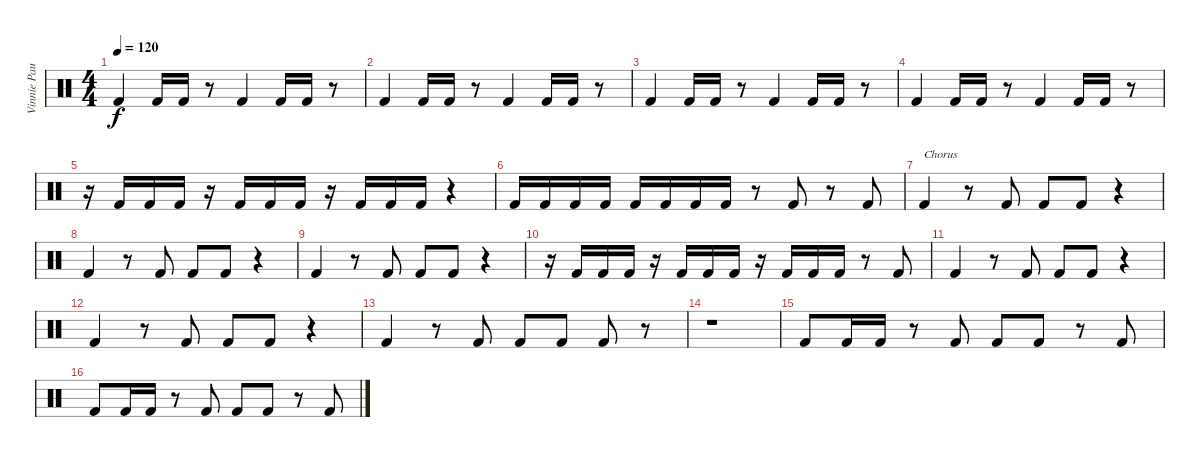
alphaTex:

\track ("Vinnie Paul bass drum" "Vinnie Pau") {instrument percussion}
\staff {score}
\articulation defaults
\ts (4 4)
\tempo 120
\clef neutral
\ks c "Kick (hit) 2".4{dy f} "Kick (hit) 2".16 "Kick (hit) 2".16
r.8 "Kick (hit) 2".4 "Kick (hit) 2".16 "Kick (hit) 2".16 r.8 |
"Kick (hit) 2".4 "Kick (hit) 2".16 "Kick (hit) 2".16 r.8 "Kick (hit) 2".4 "Kick (hit) 2".16 "Kick (hit) 2".16 r.8 |
"Kick (hit) 2".4 "Kick (hit) 2".16 "Kick (hit) 2".16 r.8 "Kick (hit) 2".4 "Kick (hit) 2".16 "Kick (hit) 2".16 r.8 |
"Kick (hit) 2".4 "Kick (hit) 2".16 "Kick (hit) 2".16 r.8 "Kick (hit) 2".4 "Kick (hit) 2".16 "Kick (hit) 2".16 r.8 |
r.16 "Kick (hit) 2".16 "Kick (hit) 2".16 "Kick (hit) 2".16 r.16 "Kick (hit) 2".16 "Kick (hit) 2".16 "Kick (hit) 2".16 r.16 "Kick (hit) 2".16 "Kick (hit) 2".16 "Kick (hit) 2".16 r.4 |
"Kick (hit) 2".16 "Kick (hit) 2".16 "Kick (hit) 2".16 "Kick (hit) 2".16 "Kick (hit) 2".16 "Kick (hit) 2".16 "Kick (hit) 2".16 "Kick (hit) 2".16 r.8 "Kick (hit) 2".8 r.8 "Kick (hit) 2".8 |
"Kick (hit) 2".4{txt "Chorus"} r.8 "Kick (hit) 2".8 "Kick (hit) 2".8 "Kick (hit) 2".8 r.4 |
"Kick (hit) 2".4 r.8 "Kick (hit) 2".8 "Kick (hit) 2".8 "Kick (hit) 2".8 r.4 |
"Kick (hit) 2".4 r.8 "Kick (hit) 2".8 "Kick (hit) 2".8 "Kick (hit) 2".8 r.4 |
r.16 "Kick (hit) 2".16 "Kick (hit) 2".16 "Kick (hit) 2".16 r.16 "Kick (hit) 2".16 "Kick (hit) 2".16 "Kick (hit) 2".16 r.16 "Kick (hit) 2".16 "Kick (hit) 2".16 "Kick (hit) 2".16 r.8 "Kick (hit) 2".8 |
"Kick (hit) 2".4 r.8 "Kick (hit) 2".8 "Kick (hit) 2".8 "Kick (hit) 2".8 r.4 |
"Kick (hit) 2".4 r.8 "Kick (hit) 2".8 "Kick (hit) 2".8 "Kick (hit) 2".8 r.4 |
"Kick (hit) 2".4 r.8 "Kick (hit) 2".8 "Kick (hit) 2".8 "Kick (hit) 2".8 "Kick (hit) 2".8 r.8 |
r.1 |
"Kick (hit) 2".8 "Kick (hit) 2".16 "Kick (hit) 2".16 r.8 "Kick (hit) 2".8 "Kick (hit) 2".8 "Kick (hit) 2".8 r.8 "Kick (hit) 2".8 |
"Kick (hit) 2".8 "Kick (hit) 2".16 "Kick (hit) 2".16 r.8 "Kick (hit) 2".8 "Kick (hit) 2".8 "Kick (hit) 2".8 r.8 "Kick (hit) 2".8
